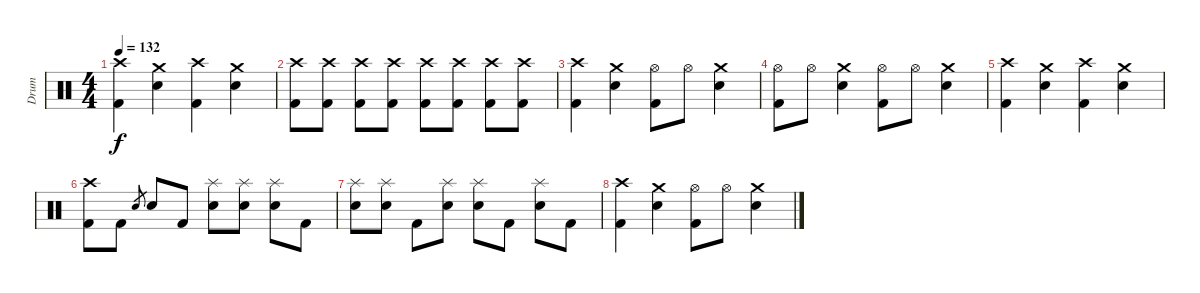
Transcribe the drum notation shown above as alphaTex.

\track ("Drum" "Drum") {instrument percussion}
\staff {score}
\articulation defaults
\ts (4 4)
\tempo 132
\clef neutral
\ks c
("Crash high (hit)" "Kick (hit) 2").4{dy f} ("Crash medium (hit)" "Snare (hit) 2").4 ("Crash high (hit)" "Kick (hit) 2").4 ("Crash medium (hit)" "Snare (hit) 2").4 |
("Crash high (hit)" "Kick (hit) 2").8 ("Crash high (hit)" "Kick (hit) 2").8 ("Crash high (hit)" "Kick (hit) 2").8 ("Crash high (hit)" "Kick (hit) 2").8 ("Crash high (hit)" "Kick (hit) 2").8 ("Crash high (hit)" "Kick (hit) 2").8 ("Crash high (hit)" "Kick (hit) 2").8 ("Crash high (hit)" "Kick (hit) 2").8 |
("Crash high (hit)" "Kick (hit) 2").4 ("Crash medium (hit)" "Snare (hit) 2").4 ("Hi-Hat (open)" "Kick (hit) 2").8 "Hi-Hat (open)".8 ("Crash medium (hit)" "Snare (hit) 2").4 |
("Hi-Hat (open)" "Kick (hit) 2").8 "Hi-Hat (open)".8 ("Crash medium (hit)" "Snare (hit) 2").4 ("Hi-Hat (open)" "Kick (hit) 2").8 "Hi-Hat (open)".8 ("Crash medium (hit)" "Snare (hit) 2").4 |
("Crash high (hit)" "Kick (hit) 2").4 ("Crash medium (hit)" "Snare (hit) 2").4 ("Crash high (hit)" "Kick (hit) 2").4 ("Crash medium (hit)" "Snare (hit) 2").4 |
("Crash high (hit)" "Kick (hit) 2").8 "Kick (hit) 2".8 "Snare (hit) 2".8{gr} "Snare (hit) 2".8 "Kick (hit) 2".8 ("Splash (hit)" "Snare (hit) 2").8 ("Splash (hit)" "Snare (hit) 2").8 ("Splash (hit)" "Snare (hit) 2").8 "Kick (hit) 2".8 |
("Splash (hit)" "Snare (hit) 2").8 ("Splash (hit)" "Snare (hit) 2").8 "Kick (hit) 2".8 ("Splash (hit)" "Snare (hit) 2").8 ("Splash (hit)" "Snare (hit) 2").8 "Kick (hit) 2".8 ("Splash (hit)" "Snare (hit) 2").8 "Kick (hit) 2".8 |
("Crash high (hit)" "Kick (hit) 2").4 ("Crash medium (hit)" "Snare (hit) 2").4 ("Hi-Hat (open)" "Kick (hit) 2").8 "Hi-Hat (open)".8 ("Crash medium (hit)" "Snare (hit) 2").4
